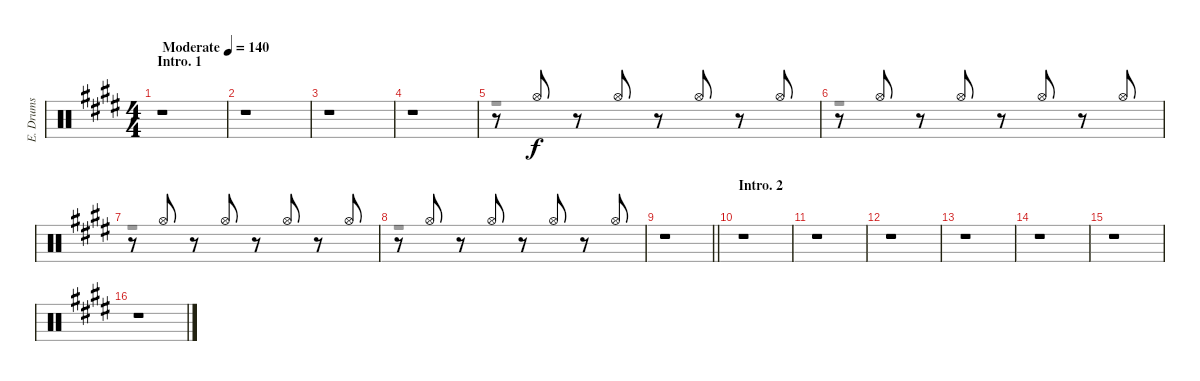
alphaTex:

\track ("E. Drums" "E. Drums") {instrument percussion}
\staff {score}
\articulation defaults
\voice
\ts (4 4)
\section ("" "Intro. 1")
\tempo (140 "Moderate")
\clef neutral
\ks e
r.1{dy f} |
r.1 |
r.1 |
r.1 |
r.8 "Hi-Hat (open)".8 r.8 "Hi-Hat (open)".8 r.8 "Hi-Hat (open)".8 r.8 "Hi-Hat (open)".8 |
r.8 "Hi-Hat (open)".8 r.8 "Hi-Hat (open)".8 r.8 "Hi-Hat (open)".8 r.8 "Hi-Hat (open)".8 |
r.8 "Hi-Hat (open)".8 r.8 "Hi-Hat (open)".8 r.8 "Hi-Hat (open)".8 r.8 "Hi-Hat (open)".8 |
r.8 "Hi-Hat (open)".8 r.8 "Hi-Hat (open)".8 r.8 "Hi-Hat (open)".8 r.8 "Hi-Hat (open)".8 |
\barLineRight lightlight
r.1 |
\section ("" "Intro. 2")
r.1 |
r.1 |
r.1 |
r.1 |
r.1 |
r.1 |
r.1
\voice
\clef neutral
\ottava regular
\simile none
\ks e
r.1{dy f} |
r.1 |
r.1 |
r.1 |
r.1 |
r.1 |
r.1 |
r.1 |
\barLineRight lightlight
r.1 |
r.1 |
r.1 |
r.1 |
r.1 |
r.1 |
r.1 |
r.1
